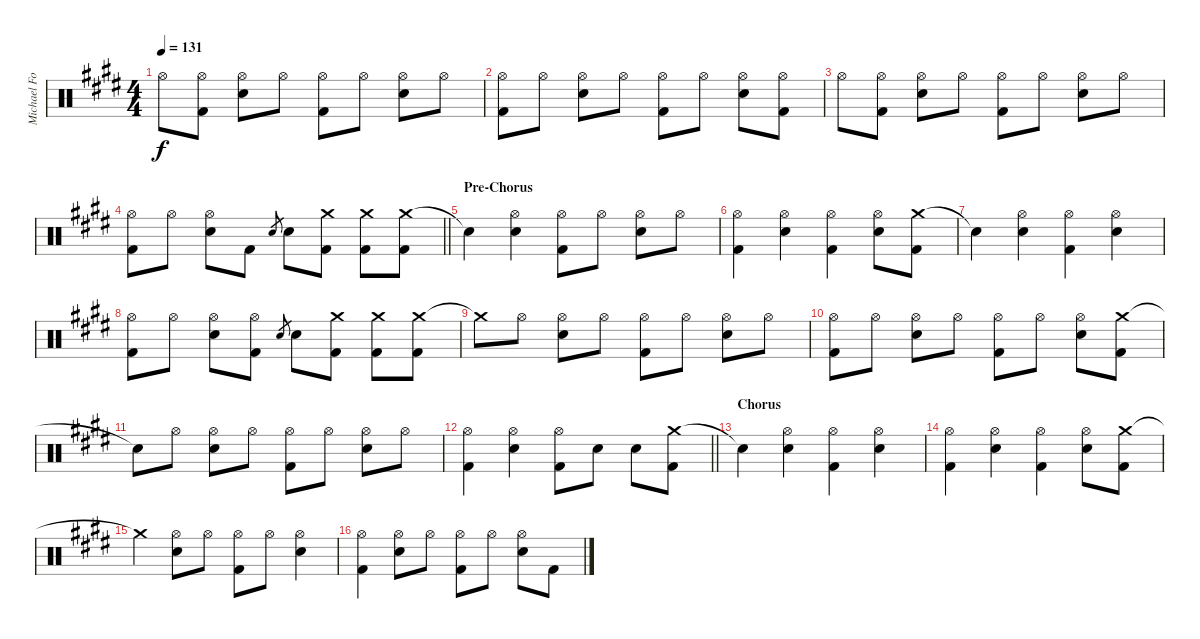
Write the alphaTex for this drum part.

\track ("Michael Foster Drums" "Michael Fo") {instrument percussion}
\staff {score}
\articulation defaults
\ts (4 4)
\tempo 131
\clef neutral
\ks e "Hi-Hat (open)".8{dy f}
("Hi-Hat (open)" "Kick (hit) 2").8 ("Hi-Hat (open)" "Snare (hit) 2").8 "Hi-Hat (open)".8 ("Hi-Hat (open)" "Kick (hit) 2").8 "Hi-Hat (open)".8 ("Hi-Hat (open)" "Snare (hit) 2").8 "Hi-Hat (open)".8 |
("Hi-Hat (open)" "Kick (hit) 2").8 "Hi-Hat (open)".8 ("Hi-Hat (open)" "Snare (hit) 2").8 "Hi-Hat (open)".8 ("Hi-Hat (open)" "Kick (hit) 2").8 "Hi-Hat (open)".8 ("Hi-Hat (open)" "Snare (hit) 2").8 ("Hi-Hat (open)" "Kick (hit) 2").8 |
"Hi-Hat (open)".8 ("Hi-Hat (open)" "Kick (hit) 2").8 ("Hi-Hat (open)" "Snare (hit) 2").8 "Hi-Hat (open)".8 ("Hi-Hat (open)" "Kick (hit) 2").8 "Hi-Hat (open)".8 ("Hi-Hat (open)" "Snare (hit) 2").8 "Hi-Hat (open)".8 |
\barLineRight lightlight
("Hi-Hat (open)" "Kick (hit) 2").8 "Hi-Hat (open)".8 ("Hi-Hat (open)" "Snare (hit) 2").8 "Kick (hit) 2".8 "Snare (hit) 2".8{gr} "Snare (hit) 2".8 ("Crash medium (hit)" "Kick (hit) 2").8 ("Crash medium (hit)" "Kick (hit) 2").8 ("Crash medium (hit)" "Kick (hit) 2").8 |
\section ("" "Pre-Chorus")
"Snare (hit)"{t}.4 ("Hi-Hat (open)" "Snare (hit) 2").4 ("Hi-Hat (open)" "Kick (hit) 2").8 "Hi-Hat (open)".8 ("Hi-Hat (open)" "Snare (hit) 2").8 "Hi-Hat (open)".8 |
("Hi-Hat (open)" "Kick (hit) 2").4 ("Hi-Hat (open)" "Snare (hit) 2").4 ("Hi-Hat (open)" "Kick (hit) 2").4 ("Hi-Hat (open)" "Snare (hit) 2").8 ("Crash medium (hit)" "Kick (hit) 2").8 |
"Snare (hit)"{t}.4 ("Hi-Hat (open)" "Snare (hit) 2").4 ("Hi-Hat (open)" "Kick (hit) 2").4 ("Hi-Hat (open)" "Snare (hit) 2").4 |
("Hi-Hat (open)" "Kick (hit) 2").8 "Hi-Hat (open)".8 ("Hi-Hat (open)" "Snare (hit) 2").8 ("Hi-Hat (open)" "Kick (hit) 2").8 "Snare (hit) 2".8{gr} "Snare (hit) 2".8 ("Crash medium (hit)" "Kick (hit) 2").8 ("Crash medium (hit)" "Kick (hit) 2").8 ("Crash medium (hit)" "Kick (hit) 2").8 |
"Crash medium (hit)"{t}.8 "Hi-Hat (open)".8 ("Hi-Hat (open)" "Snare (hit) 2").8 "Hi-Hat (open)".8 ("Hi-Hat (open)" "Kick (hit) 2").8 "Hi-Hat (open)".8 ("Hi-Hat (open)" "Snare (hit) 2").8 "Hi-Hat (open)".8 |
("Hi-Hat (open)" "Kick (hit) 2").8 "Hi-Hat (open)".8 ("Hi-Hat (open)" "Snare (hit) 2").8 "Hi-Hat (open)".8 ("Hi-Hat (open)" "Kick (hit) 2").8 "Hi-Hat (open)".8 ("Hi-Hat (open)" "Snare (hit) 2").8 ("Crash medium (hit)" "Kick (hit) 2").8 |
"Snare (hit)"{t}.8 "Hi-Hat (open)".8 ("Hi-Hat (open)" "Snare (hit) 2").8 "Hi-Hat (open)".8 ("Hi-Hat (open)" "Kick (hit) 2").8 "Hi-Hat (open)".8 ("Hi-Hat (open)" "Snare (hit) 2").8 "Hi-Hat (open)".8 |
\barLineRight lightlight
("Hi-Hat (open)" "Kick (hit) 2").4 ("Hi-Hat (open)" "Snare (hit) 2").4 ("Hi-Hat (open)" "Kick (hit) 2").8 "Snare (hit) 2".8 "Snare (hit) 2".8 ("Crash medium (hit)" "Kick (hit) 2").8 |
\section ("" "Chorus")
"Snare (hit)"{t}.4 ("Hi-Hat (open)" "Snare (hit) 2").4 ("Hi-Hat (open)" "Kick (hit) 2").4 ("Hi-Hat (open)" "Snare (hit) 2").4 |
("Hi-Hat (open)" "Kick (hit) 2").4 ("Hi-Hat (open)" "Snare (hit) 2").4 ("Hi-Hat (open)" "Kick (hit) 2").4 ("Hi-Hat (open)" "Snare (hit) 2").8 ("Crash medium (hit)" "Kick (hit) 2").8 |
"Crash medium (hit)"{t}.4 ("Hi-Hat (open)" "Snare (hit) 2").8 "Hi-Hat (open)".8 ("Hi-Hat (open)" "Kick (hit) 2").8 "Hi-Hat (open)".8 ("Hi-Hat (open)" "Snare (hit) 2").4 |
("Hi-Hat (open)" "Kick (hit) 2").4 ("Hi-Hat (open)" "Snare (hit) 2").8 "Hi-Hat (open)".8 ("Hi-Hat (open)" "Kick (hit) 2").8 "Hi-Hat (open)".8 ("Hi-Hat (open)" "Snare (hit) 2").8 "Kick (hit) 2".8
